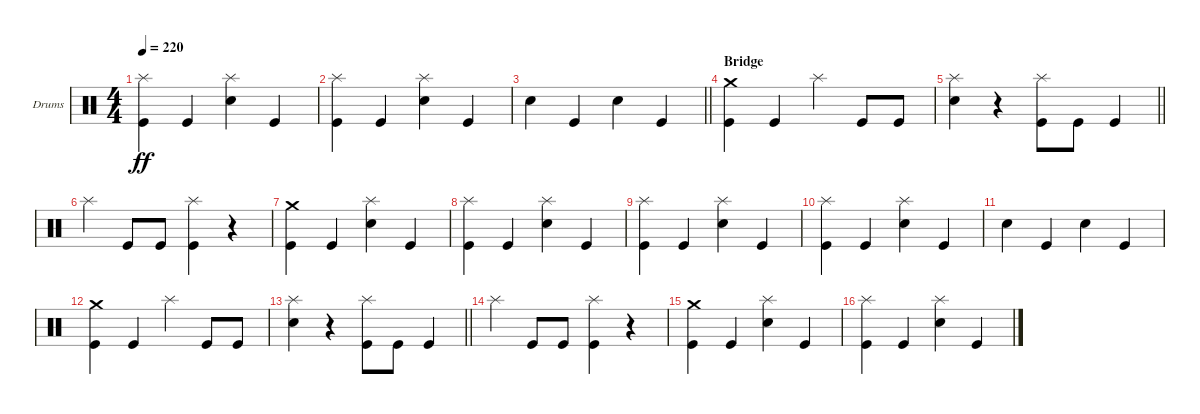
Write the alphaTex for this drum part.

\bracketExtendMode groupsimilarinstruments
\firstSystemTrackNameOrientation horizontal
\otherSystemsTrackNameOrientation horizontal
\track ("Drumkit" "Drums") {instrument percussion}
\staff {score}
\articulation defaults
\ts (4 4)
\tempo 220
\clef neutral
\ks c
("Splash (hit)" "Kick (hit)").4{dy ff} "Kick (hit)".4 ("Splash (hit)" "Snare (hit) 2").4 "Kick (hit)".4 |
("Splash (hit)" "Kick (hit)").4 "Kick (hit)".4 ("Splash (hit)" "Snare (hit) 2").4 "Kick (hit)".4 |
\barLineRight lightlight "Snare (hit) 2".4 "Kick (hit)".4 "Snare (hit) 2".4 "Kick (hit)".4
|
\section ("" "Bridge")
("Crash medium (hit)" "Kick (hit)").4 "Kick (hit)".4 "Splash (hit)".4 "Kick (hit)".8 "Kick (hit)".8 |
\barLineRight lightlight
("Splash (hit)" "Snare (hit) 2").4 r.4 ("Splash (hit)" "Kick (hit)").8 "Kick (hit)".8 "Kick (hit)".4 |
"Splash (hit)".4 "Kick (hit)".8 "Kick (hit)".8 ("Splash (hit)" "Kick (hit)").4 r.4 |
("Crash medium (hit)" "Kick (hit)").4 "Kick (hit)".4 ("Splash (hit)" "Snare (hit) 2").4 "Kick (hit)".4 |
("Splash (hit)" "Kick (hit)").4 "Kick (hit)".4 ("Splash (hit)" "Snare (hit) 2").4 "Kick (hit)".4 |
("Splash (hit)" "Kick (hit)").4 "Kick (hit)".4 ("Splash (hit)" "Snare (hit) 2").4 "Kick (hit)".4 |
("Splash (hit)" "Kick (hit)").4 "Kick (hit)".4 ("Splash (hit)" "Snare (hit) 2").4 "Kick (hit)".4 |
"Snare (hit) 2".4 "Kick (hit)".4 "Snare (hit) 2".4 "Kick (hit)".4 |
("Crash medium (hit)" "Kick (hit)").4 "Kick (hit)".4 "Splash (hit)".4 "Kick (hit)".8 "Kick (hit)".8 |
\barLineRight lightlight
("Splash (hit)" "Snare (hit) 2").4 r.4 ("Splash (hit)" "Kick (hit)").8 "Kick (hit)".8 "Kick (hit)".4 |
"Splash (hit)".4 "Kick (hit)".8 "Kick (hit)".8 ("Splash (hit)" "Kick (hit)").4 r.4 |
("Crash medium (hit)" "Kick (hit)").4 "Kick (hit)".4 ("Splash (hit)" "Snare (hit) 2").4 "Kick (hit)".4 |
("Splash (hit)" "Kick (hit)").4 "Kick (hit)".4 ("Splash (hit)" "Snare (hit) 2").4 "Kick (hit)".4
